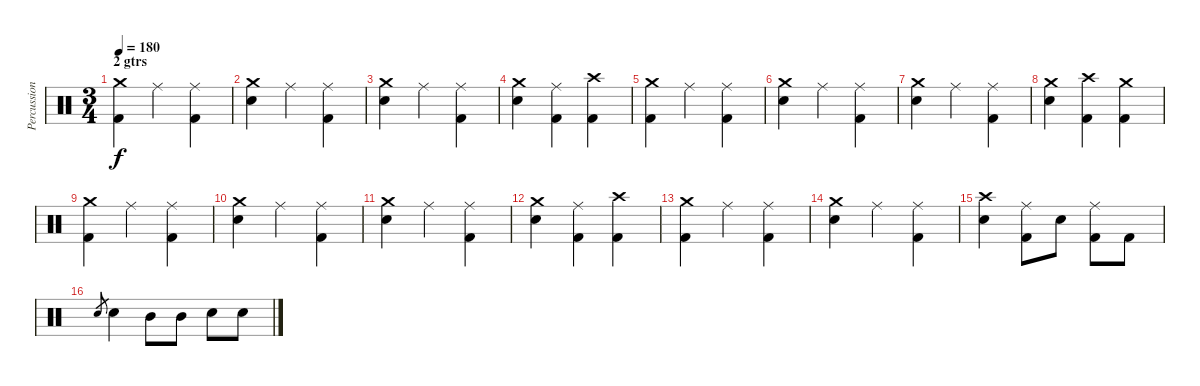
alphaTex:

\track ("Percussions" "Percussion") {instrument percussion}
\staff {score}
\articulation defaults
\ts (3 4)
\section ("" "2 gtrs")
\tempo 180
\clef neutral
\ks c
("Crash medium (hit)" "Kick (hit) 2").4{dy f} "Ride (middle)".4 ("Ride (middle)" "Kick (hit) 2").4 |
("Crash medium (hit)" "Snare (hit) 2").4 "Ride (middle)".4 ("Ride (middle)" "Kick (hit) 2").4 |
("Crash medium (hit)" "Snare (hit) 2").4 "Ride (middle)".4 ("Ride (middle)" "Kick (hit) 2").4 |
("Crash medium (hit)" "Snare (hit) 2").4 ("Ride (middle)" "Kick (hit) 2").4 ("Crash high (hit)" "Kick (hit) 2").4 |
("Crash medium (hit)" "Kick (hit) 2").4 "Ride (middle)".4 ("Ride (middle)" "Kick (hit) 2").4 |
("Crash medium (hit)" "Snare (hit) 2").4 "Ride (middle)".4 ("Ride (middle)" "Kick (hit) 2").4 |
("Crash medium (hit)" "Snare (hit) 2").4 "Ride (middle)".4 ("Ride (middle)" "Kick (hit) 2").4 |
("Crash medium (hit)" "Snare (hit) 2").4 ("Crash high (hit)" "Kick (hit) 2").4 ("Crash medium (hit)" "Kick (hit) 2").4 |
("Crash medium (hit)" "Kick (hit) 2").4 "Ride (middle)".4 ("Ride (middle)" "Kick (hit) 2").4 |
("Crash medium (hit)" "Snare (hit) 2").4 "Ride (middle)".4 ("Ride (middle)" "Kick (hit) 2").4 |
("Crash medium (hit)" "Snare (hit) 2").4 "Ride (middle)".4 ("Ride (middle)" "Kick (hit) 2").4 |
("Crash medium (hit)" "Snare (hit) 2").4 ("Ride (middle)" "Kick (hit) 2").4 ("Crash high (hit)" "Kick (hit) 2").4 |
("Crash medium (hit)" "Kick (hit) 2").4 "Ride (middle)".4 ("Ride (middle)" "Kick (hit) 2").4 |
("Crash medium (hit)" "Snare (hit) 2").4 "Ride (middle)".4 ("Ride (middle)" "Kick (hit) 2").4 |
("Crash high (hit)" "Snare (hit) 2").4 ("Ride (middle)" "Kick (hit) 2").8 "Snare (hit) 2".8 ("Ride (middle)" "Kick (hit) 2").8 "Kick (hit) 2".8 |
"Snare (hit) 2".8{gr} "Snare (hit) 2".4 "Mid Tom (hit)".8 "Mid Tom (hit)".8 "Snare (hit) 2".8 "Snare (hit) 2".8
